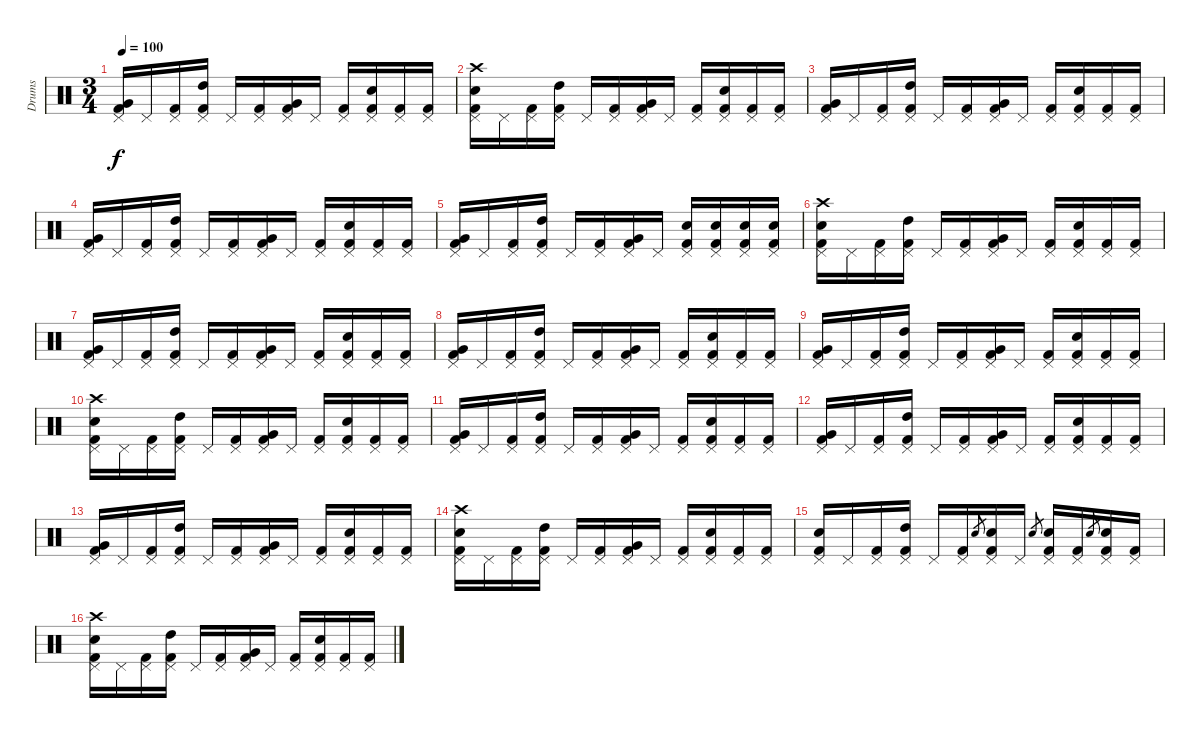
\track ("Drums" "Drums") {instrument percussion}
\staff {score}
\articulation defaults
\ts (3 4)
\tempo 100
\clef neutral
\ks c
("Very Low Tom (hit)" "Pedal Hi-Hat (hit)" "Kick (hit) 2").16{dy f} "Pedal Hi-Hat (hit)".16 ("Pedal Hi-Hat (hit)" "Kick (hit) 2").16 ("High Tom (hit)" "Pedal Hi-Hat (hit)" "Kick (hit) 2").16 "Pedal Hi-Hat (hit)".16 ("Pedal Hi-Hat (hit)" "Kick (hit) 2").16 ("Very Low Tom (hit)" "Pedal Hi-Hat (hit)" "Kick (hit) 2").16 "Pedal Hi-Hat (hit)".16 ("Pedal Hi-Hat (hit)" "Kick (hit) 2").16 ("Snare (hit) 2" "Pedal Hi-Hat (hit)" "Kick (hit) 2").16 ("Pedal Hi-Hat (hit)" "Kick (hit) 2").16 ("Pedal Hi-Hat (hit)" "Kick (hit) 2").16 |
("Crash high (hit)" "Snare (hit) 2" "Pedal Hi-Hat (hit)" "Kick (hit) 2").16 "Pedal Hi-Hat (hit)".16 ("Pedal Hi-Hat (hit)" "Kick (hit) 2").16 ("High Tom (hit)" "Pedal Hi-Hat (hit)" "Kick (hit) 2").16 "Pedal Hi-Hat (hit)".16 ("Pedal Hi-Hat (hit)" "Kick (hit) 2").16 ("Very Low Tom (hit)" "Pedal Hi-Hat (hit)" "Kick (hit) 2").16 "Pedal Hi-Hat (hit)".16 ("Pedal Hi-Hat (hit)" "Kick (hit) 2").16 ("Snare (hit) 2" "Pedal Hi-Hat (hit)" "Kick (hit) 2").16 ("Pedal Hi-Hat (hit)" "Kick (hit) 2").16 ("Pedal Hi-Hat (hit)" "Kick (hit) 2").16 |
("Very Low Tom (hit)" "Pedal Hi-Hat (hit)" "Kick (hit) 2").16 "Pedal Hi-Hat (hit)".16 ("Pedal Hi-Hat (hit)" "Kick (hit) 2").16 ("High Tom (hit)" "Pedal Hi-Hat (hit)" "Kick (hit) 2").16 "Pedal Hi-Hat (hit)".16 ("Pedal Hi-Hat (hit)" "Kick (hit) 2").16 ("Very Low Tom (hit)" "Pedal Hi-Hat (hit)" "Kick (hit) 2").16 "Pedal Hi-Hat (hit)".16 ("Pedal Hi-Hat (hit)" "Kick (hit) 2").16 ("Snare (hit) 2" "Pedal Hi-Hat (hit)" "Kick (hit) 2").16 ("Pedal Hi-Hat (hit)" "Kick (hit) 2").16 ("Pedal Hi-Hat (hit)" "Kick (hit) 2").16 |
("Very Low Tom (hit)" "Pedal Hi-Hat (hit)" "Kick (hit) 2").16 "Pedal Hi-Hat (hit)".16 ("Pedal Hi-Hat (hit)" "Kick (hit) 2").16 ("High Tom (hit)" "Pedal Hi-Hat (hit)" "Kick (hit) 2").16 "Pedal Hi-Hat (hit)".16 ("Pedal Hi-Hat (hit)" "Kick (hit) 2").16 ("Very Low Tom (hit)" "Pedal Hi-Hat (hit)" "Kick (hit) 2").16 "Pedal Hi-Hat (hit)".16 ("Pedal Hi-Hat (hit)" "Kick (hit) 2").16 ("Snare (hit) 2" "Pedal Hi-Hat (hit)" "Kick (hit) 2").16 ("Pedal Hi-Hat (hit)" "Kick (hit) 2").16 ("Pedal Hi-Hat (hit)" "Kick (hit) 2").16 |
("Very Low Tom (hit)" "Pedal Hi-Hat (hit)" "Kick (hit) 2").16 "Pedal Hi-Hat (hit)".16 ("Pedal Hi-Hat (hit)" "Kick (hit) 2").16 ("High Tom (hit)" "Pedal Hi-Hat (hit)" "Kick (hit) 2").16 "Pedal Hi-Hat (hit)".16 ("Pedal Hi-Hat (hit)" "Kick (hit) 2").16 ("Very Low Tom (hit)" "Pedal Hi-Hat (hit)" "Kick (hit) 2").16 "Pedal Hi-Hat (hit)".16 ("Snare (hit) 2" "Pedal Hi-Hat (hit)" "Kick (hit) 2").16 ("Snare (hit) 2" "Pedal Hi-Hat (hit)" "Kick (hit) 2").16 ("Snare (hit) 2" "Pedal Hi-Hat (hit)" "Kick (hit) 2").16 ("Snare (hit) 2" "Pedal Hi-Hat (hit)" "Kick (hit) 2").16 |
("Crash high (hit)" "Snare (hit) 2" "Pedal Hi-Hat (hit)" "Kick (hit) 2").16 "Pedal Hi-Hat (hit)".16 ("Pedal Hi-Hat (hit)" "Kick (hit) 2").16 ("High Tom (hit)" "Pedal Hi-Hat (hit)" "Kick (hit) 2").16 "Pedal Hi-Hat (hit)".16 ("Pedal Hi-Hat (hit)" "Kick (hit) 2").16 ("Very Low Tom (hit)" "Pedal Hi-Hat (hit)" "Kick (hit) 2").16 "Pedal Hi-Hat (hit)".16 ("Pedal Hi-Hat (hit)" "Kick (hit) 2").16 ("Snare (hit) 2" "Pedal Hi-Hat (hit)" "Kick (hit) 2").16 ("Pedal Hi-Hat (hit)" "Kick (hit) 2").16 ("Pedal Hi-Hat (hit)" "Kick (hit) 2").16 |
("Very Low Tom (hit)" "Pedal Hi-Hat (hit)" "Kick (hit) 2").16 "Pedal Hi-Hat (hit)".16 ("Pedal Hi-Hat (hit)" "Kick (hit) 2").16 ("High Tom (hit)" "Pedal Hi-Hat (hit)" "Kick (hit) 2").16 "Pedal Hi-Hat (hit)".16 ("Pedal Hi-Hat (hit)" "Kick (hit) 2").16 ("Very Low Tom (hit)" "Pedal Hi-Hat (hit)" "Kick (hit) 2").16 "Pedal Hi-Hat (hit)".16 ("Pedal Hi-Hat (hit)" "Kick (hit) 2").16 ("Snare (hit) 2" "Pedal Hi-Hat (hit)" "Kick (hit) 2").16 ("Pedal Hi-Hat (hit)" "Kick (hit) 2").16 ("Pedal Hi-Hat (hit)" "Kick (hit) 2").16 |
("Very Low Tom (hit)" "Pedal Hi-Hat (hit)" "Kick (hit) 2").16 "Pedal Hi-Hat (hit)".16 ("Pedal Hi-Hat (hit)" "Kick (hit) 2").16 ("High Tom (hit)" "Pedal Hi-Hat (hit)" "Kick (hit) 2").16 "Pedal Hi-Hat (hit)".16 ("Pedal Hi-Hat (hit)" "Kick (hit) 2").16 ("Very Low Tom (hit)" "Pedal Hi-Hat (hit)" "Kick (hit) 2").16 "Pedal Hi-Hat (hit)".16 ("Pedal Hi-Hat (hit)" "Kick (hit) 2").16 ("Snare (hit) 2" "Pedal Hi-Hat (hit)" "Kick (hit) 2").16 ("Pedal Hi-Hat (hit)" "Kick (hit) 2").16 ("Pedal Hi-Hat (hit)" "Kick (hit) 2").16 |
("Very Low Tom (hit)" "Pedal Hi-Hat (hit)" "Kick (hit) 2").16 "Pedal Hi-Hat (hit)".16 ("Pedal Hi-Hat (hit)" "Kick (hit) 2").16 ("High Tom (hit)" "Pedal Hi-Hat (hit)" "Kick (hit) 2").16 "Pedal Hi-Hat (hit)".16 ("Pedal Hi-Hat (hit)" "Kick (hit) 2").16 ("Very Low Tom (hit)" "Pedal Hi-Hat (hit)" "Kick (hit) 2").16 "Pedal Hi-Hat (hit)".16 ("Pedal Hi-Hat (hit)" "Kick (hit) 2").16 ("Snare (hit) 2" "Pedal Hi-Hat (hit)" "Kick (hit) 2").16 ("Pedal Hi-Hat (hit)" "Kick (hit) 2").16 ("Pedal Hi-Hat (hit)" "Kick (hit) 2").16 |
("Crash high (hit)" "Snare (hit) 2" "Pedal Hi-Hat (hit)" "Kick (hit) 2").16 "Pedal Hi-Hat (hit)".16 ("Pedal Hi-Hat (hit)" "Kick (hit) 2").16 ("High Tom (hit)" "Pedal Hi-Hat (hit)" "Kick (hit) 2").16 "Pedal Hi-Hat (hit)".16 ("Pedal Hi-Hat (hit)" "Kick (hit) 2").16 ("Very Low Tom (hit)" "Pedal Hi-Hat (hit)" "Kick (hit) 2").16 "Pedal Hi-Hat (hit)".16 ("Pedal Hi-Hat (hit)" "Kick (hit) 2").16 ("Snare (hit) 2" "Pedal Hi-Hat (hit)" "Kick (hit) 2").16 ("Pedal Hi-Hat (hit)" "Kick (hit) 2").16 ("Pedal Hi-Hat (hit)" "Kick (hit) 2").16 |
("Very Low Tom (hit)" "Pedal Hi-Hat (hit)" "Kick (hit) 2").16 "Pedal Hi-Hat (hit)".16 ("Pedal Hi-Hat (hit)" "Kick (hit) 2").16 ("High Tom (hit)" "Pedal Hi-Hat (hit)" "Kick (hit) 2").16 "Pedal Hi-Hat (hit)".16 ("Pedal Hi-Hat (hit)" "Kick (hit) 2").16 ("Very Low Tom (hit)" "Pedal Hi-Hat (hit)" "Kick (hit) 2").16 "Pedal Hi-Hat (hit)".16 ("Pedal Hi-Hat (hit)" "Kick (hit) 2").16 ("Snare (hit) 2" "Pedal Hi-Hat (hit)" "Kick (hit) 2").16 ("Pedal Hi-Hat (hit)" "Kick (hit) 2").16 ("Pedal Hi-Hat (hit)" "Kick (hit) 2").16 |
("Very Low Tom (hit)" "Pedal Hi-Hat (hit)" "Kick (hit) 2").16 "Pedal Hi-Hat (hit)".16 ("Pedal Hi-Hat (hit)" "Kick (hit) 2").16 ("High Tom (hit)" "Pedal Hi-Hat (hit)" "Kick (hit) 2").16 "Pedal Hi-Hat (hit)".16 ("Pedal Hi-Hat (hit)" "Kick (hit) 2").16 ("Very Low Tom (hit)" "Pedal Hi-Hat (hit)" "Kick (hit) 2").16 "Pedal Hi-Hat (hit)".16 ("Pedal Hi-Hat (hit)" "Kick (hit) 2").16 ("Snare (hit) 2" "Pedal Hi-Hat (hit)" "Kick (hit) 2").16 ("Pedal Hi-Hat (hit)" "Kick (hit) 2").16 ("Pedal Hi-Hat (hit)" "Kick (hit) 2").16 |
("Very Low Tom (hit)" "Pedal Hi-Hat (hit)" "Kick (hit) 2").16 "Pedal Hi-Hat (hit)".16 ("Pedal Hi-Hat (hit)" "Kick (hit) 2").16 ("High Tom (hit)" "Pedal Hi-Hat (hit)" "Kick (hit) 2").16 "Pedal Hi-Hat (hit)".16 ("Pedal Hi-Hat (hit)" "Kick (hit) 2").16 ("Very Low Tom (hit)" "Pedal Hi-Hat (hit)" "Kick (hit) 2").16 "Pedal Hi-Hat (hit)".16 ("Pedal Hi-Hat (hit)" "Kick (hit) 2").16 ("Snare (hit) 2" "Pedal Hi-Hat (hit)" "Kick (hit) 2").16 ("Pedal Hi-Hat (hit)" "Kick (hit) 2").16 ("Pedal Hi-Hat (hit)" "Kick (hit) 2").16 |
("Crash high (hit)" "Snare (hit) 2" "Pedal Hi-Hat (hit)" "Kick (hit) 2").16 "Pedal Hi-Hat (hit)".16 ("Pedal Hi-Hat (hit)" "Kick (hit) 2").16 ("High Tom (hit)" "Pedal Hi-Hat (hit)" "Kick (hit) 2").16 "Pedal Hi-Hat (hit)".16 ("Pedal Hi-Hat (hit)" "Kick (hit) 2").16 ("Very Low Tom (hit)" "Pedal Hi-Hat (hit)" "Kick (hit) 2").16 "Pedal Hi-Hat (hit)".16 ("Pedal Hi-Hat (hit)" "Kick (hit) 2").16 ("Snare (hit) 2" "Pedal Hi-Hat (hit)" "Kick (hit) 2").16 ("Pedal Hi-Hat (hit)" "Kick (hit) 2").16 ("Pedal Hi-Hat (hit)" "Kick (hit) 2").16 |
("Snare (hit) 2" "Pedal Hi-Hat (hit)" "Kick (hit) 2").16 "Pedal Hi-Hat (hit)".16 ("Pedal Hi-Hat (hit)" "Kick (hit) 2").16 ("High Tom (hit)" "Pedal Hi-Hat (hit)" "Kick (hit) 2").16 "Pedal Hi-Hat (hit)".16 ("Pedal Hi-Hat (hit)" "Kick (hit) 2").16 "Snare (hit) 2".8{gr} ("Snare (hit) 2" "Pedal Hi-Hat (hit)" "Kick (hit) 2").16 "Pedal Hi-Hat (hit)".16 "Snare (hit) 2".8{gr} ("Snare (hit) 2" "Pedal Hi-Hat (hit)" "Kick (hit) 2").16 ("Pedal Hi-Hat (hit)" "Kick (hit) 2").16 "Snare (hit) 2".8{gr} ("Snare (hit) 2" "Pedal Hi-Hat (hit)" "Kick (hit) 2").16 ("Pedal Hi-Hat (hit)" "Kick (hit) 2").16 |
("Crash high (hit)" "Snare (hit) 2" "Pedal Hi-Hat (hit)" "Kick (hit) 2").16 "Pedal Hi-Hat (hit)".16 ("Pedal Hi-Hat (hit)" "Kick (hit) 2").16 ("High Tom (hit)" "Pedal Hi-Hat (hit)" "Kick (hit) 2").16 "Pedal Hi-Hat (hit)".16 ("Pedal Hi-Hat (hit)" "Kick (hit) 2").16 ("Very Low Tom (hit)" "Pedal Hi-Hat (hit)" "Kick (hit) 2").16 "Pedal Hi-Hat (hit)".16 ("Pedal Hi-Hat (hit)" "Kick (hit) 2").16 ("Snare (hit) 2" "Pedal Hi-Hat (hit)" "Kick (hit) 2").16 ("Pedal Hi-Hat (hit)" "Kick (hit) 2").16 ("Pedal Hi-Hat (hit)" "Kick (hit) 2").16
